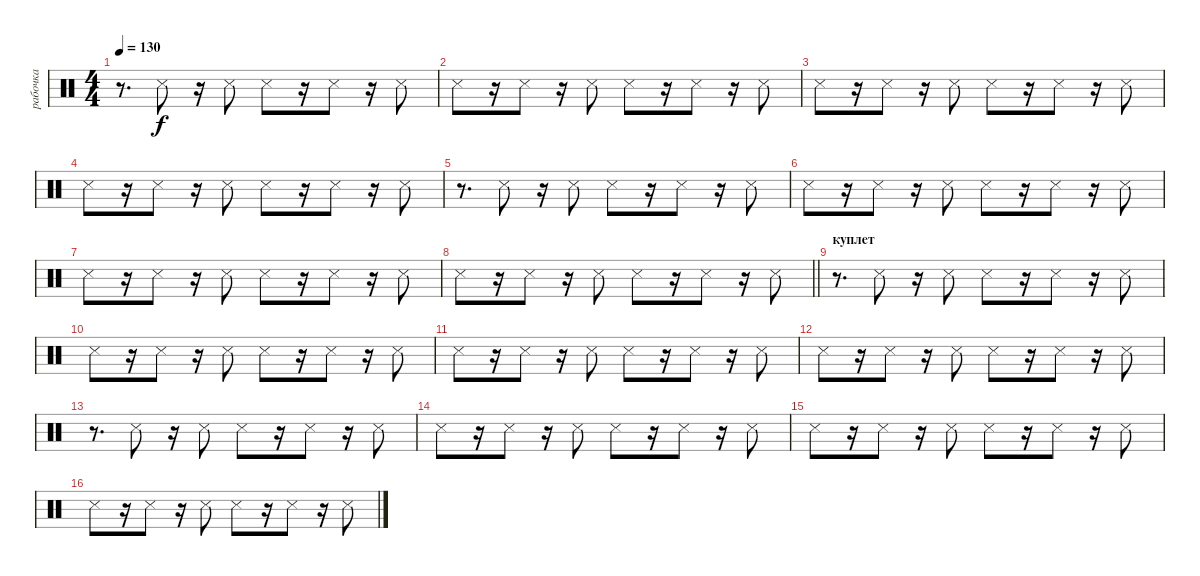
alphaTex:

\track ("рабочка" "рабочка") {instrument percussion}
\staff {score}
\articulation defaults
\ts (4 4)
\tempo 130
\clef neutral
\ks c
r.8{d dy f} "Snare (side stick) 3".8 r.16 "Snare (side stick) 3".8 "Snare (side stick) 3".8 r.16 "Snare (side stick) 3".8 r.16 "Snare (side stick) 3".8 |
"Snare (side stick) 3".8 r.16 "Snare (side stick) 3".8 r.16 "Snare (side stick) 3".8 "Snare (side stick) 3".8 r.16 "Snare (side stick) 3".8 r.16 "Snare (side stick) 3".8 |
"Snare (side stick) 3".8 r.16 "Snare (side stick) 3".8 r.16 "Snare (side stick) 3".8 "Snare (side stick) 3".8 r.16 "Snare (side stick) 3".8 r.16 "Snare (side stick) 3".8 |
"Snare (side stick) 3".8 r.16 "Snare (side stick) 3".8 r.16 "Snare (side stick) 3".8 "Snare (side stick) 3".8 r.16 "Snare (side stick) 3".8 r.16 "Snare (side stick) 3".8 |
r.8{d} "Snare (side stick) 3".8 r.16 "Snare (side stick) 3".8 "Snare (side stick) 3".8 r.16 "Snare (side stick) 3".8 r.16 "Snare (side stick) 3".8 |
"Snare (side stick) 3".8 r.16 "Snare (side stick) 3".8 r.16 "Snare (side stick) 3".8 "Snare (side stick) 3".8 r.16 "Snare (side stick) 3".8 r.16 "Snare (side stick) 3".8 |
"Snare (side stick) 3".8 r.16 "Snare (side stick) 3".8 r.16 "Snare (side stick) 3".8 "Snare (side stick) 3".8 r.16 "Snare (side stick) 3".8 r.16 "Snare (side stick) 3".8 |
\barLineRight lightlight "Snare (side stick) 3".8
r.16 "Snare (side stick) 3".8 r.16 "Snare (side stick) 3".8 "Snare (side stick) 3".8 r.16 "Snare (side stick) 3".8 r.16 "Snare (side stick) 3".8 |
\section ("" "куплет")
r.8{d} "Snare (side stick) 3".8 r.16 "Snare (side stick) 3".8 "Snare (side stick) 3".8 r.16 "Snare (side stick) 3".8 r.16 "Snare (side stick) 3".8 |
"Snare (side stick) 3".8 r.16 "Snare (side stick) 3".8 r.16 "Snare (side stick) 3".8 "Snare (side stick) 3".8 r.16 "Snare (side stick) 3".8 r.16 "Snare (side stick) 3".8 |
"Snare (side stick) 3".8 r.16 "Snare (side stick) 3".8 r.16 "Snare (side stick) 3".8 "Snare (side stick) 3".8 r.16 "Snare (side stick) 3".8 r.16 "Snare (side stick) 3".8 |
"Snare (side stick) 3".8 r.16 "Snare (side stick) 3".8 r.16 "Snare (side stick) 3".8 "Snare (side stick) 3".8 r.16 "Snare (side stick) 3".8 r.16 "Snare (side stick) 3".8 |
r.8{d} "Snare (side stick) 3".8 r.16 "Snare (side stick) 3".8 "Snare (side stick) 3".8 r.16 "Snare (side stick) 3".8 r.16 "Snare (side stick) 3".8 |
"Snare (side stick) 3".8 r.16 "Snare (side stick) 3".8 r.16 "Snare (side stick) 3".8 "Snare (side stick) 3".8 r.16 "Snare (side stick) 3".8 r.16 "Snare (side stick) 3".8 |
"Snare (side stick) 3".8 r.16 "Snare (side stick) 3".8 r.16 "Snare (side stick) 3".8 "Snare (side stick) 3".8 r.16 "Snare (side stick) 3".8 r.16 "Snare (side stick) 3".8 |
"Snare (side stick) 3".8 r.16 "Snare (side stick) 3".8 r.16 "Snare (side stick) 3".8 "Snare (side stick) 3".8 r.16 "Snare (side stick) 3".8 r.16 "Snare (side stick) 3".8
